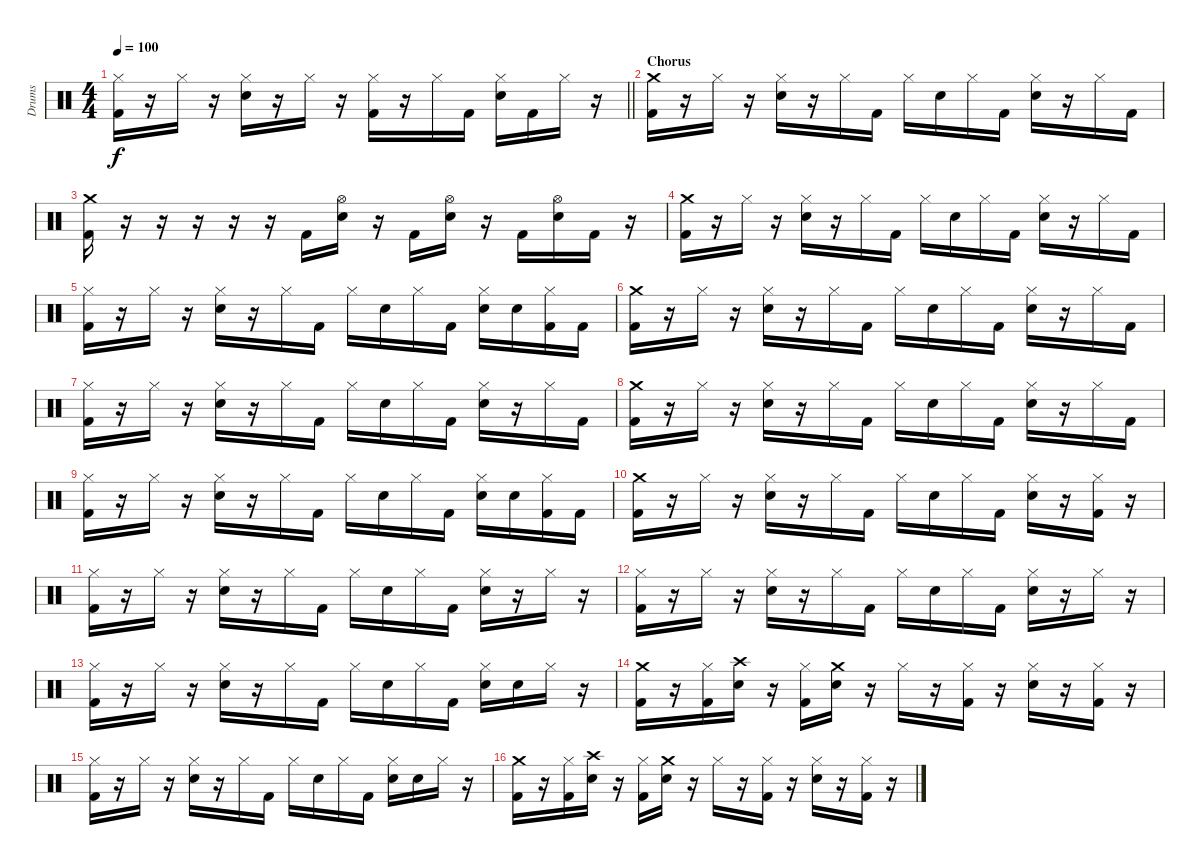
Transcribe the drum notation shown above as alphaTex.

\track ("Drums" "Drums") {instrument percussion}
\staff {score}
\articulation defaults
\ts (4 4)
\tempo 100
\clef neutral
\barLineRight lightlight
\ks c
("Hi-Hat (closed)" "Kick (hit) 2").16{dy f} r.16 "Hi-Hat (closed)".16 r.16 ("Hi-Hat (closed)" "Snare (hit) 2").16 r.16 "Hi-Hat (closed)".16 r.16 ("Hi-Hat (closed)" "Kick (hit) 2").16 r.16 "Hi-Hat (closed)".16 "Kick (hit) 2".16 ("Hi-Hat (closed)" "Snare (hit) 2").16 "Kick (hit) 2".16 "Hi-Hat (closed)".16 r.16 |
\section ("" "Chorus")
("Crash medium (hit)" "Kick (hit) 2").16 r.16 "Hi-Hat (closed)".16 r.16 ("Hi-Hat (closed)" "Snare (hit) 2").16 r.16 "Hi-Hat (closed)".16 "Kick (hit) 2".16 "Hi-Hat (closed)".16 "Snare (hit) 2".16 "Hi-Hat (closed)".16 "Kick (hit) 2".16 ("Hi-Hat (closed)" "Snare (hit) 2").16 r.16 "Hi-Hat (closed)".16 "Kick (hit) 2".16 |
("Crash medium (hit)" "Kick (hit) 2").16 r.16 r.16 r.16 r.16 r.16 "Kick (hit) 2".16 ("Hi-Hat (open)" "Snare (hit) 2").16 r.16 "Kick (hit) 2".16 ("Hi-Hat (open)" "Snare (hit) 2").16 r.16 "Kick (hit) 2".16 ("Hi-Hat (open)" "Snare (hit) 2").16 "Kick (hit) 2".16 r.16 |
("Crash medium (hit)" "Kick (hit) 2").16 r.16 "Hi-Hat (closed)".16 r.16 ("Hi-Hat (closed)" "Snare (hit) 2").16 r.16 "Hi-Hat (closed)".16 "Kick (hit) 2".16 "Hi-Hat (closed)".16 "Snare (hit) 2".16 "Hi-Hat (closed)".16 "Kick (hit) 2".16 ("Hi-Hat (closed)" "Snare (hit) 2").16 r.16 "Hi-Hat (closed)".16 "Kick (hit) 2".16 |
("Hi-Hat (closed)" "Kick (hit) 2").16 r.16 "Hi-Hat (closed)".16 r.16 ("Hi-Hat (closed)" "Snare (hit) 2").16 r.16 "Hi-Hat (closed)".16 "Kick (hit) 2".16 "Hi-Hat (closed)".16 "Snare (hit) 2".16 "Hi-Hat (closed)".16 "Kick (hit) 2".16 ("Hi-Hat (closed)" "Snare (hit) 2").16 "Snare (hit) 2".16 ("Hi-Hat (closed)" "Kick (hit) 2").16 "Kick (hit) 2".16 |
("Crash medium (hit)" "Kick (hit) 2").16 r.16 "Hi-Hat (closed)".16 r.16 ("Hi-Hat (closed)" "Snare (hit) 2").16 r.16 "Hi-Hat (closed)".16 "Kick (hit) 2".16 "Hi-Hat (closed)".16 "Snare (hit) 2".16 "Hi-Hat (closed)".16 "Kick (hit) 2".16 ("Hi-Hat (closed)" "Snare (hit) 2").16 r.16 "Hi-Hat (closed)".16 "Kick (hit) 2".16 |
("Hi-Hat (closed)" "Kick (hit) 2").16 r.16 "Hi-Hat (closed)".16 r.16 ("Hi-Hat (closed)" "Snare (hit) 2").16 r.16 "Hi-Hat (closed)".16 "Kick (hit) 2".16 "Hi-Hat (closed)".16 "Snare (hit) 2".16 "Hi-Hat (closed)".16 "Kick (hit) 2".16 ("Hi-Hat (closed)" "Snare (hit) 2").16 r.16 "Hi-Hat (closed)".16 "Kick (hit) 2".16 |
("Crash medium (hit)" "Kick (hit) 2").16 r.16 "Hi-Hat (closed)".16 r.16 ("Hi-Hat (closed)" "Snare (hit) 2").16 r.16 "Hi-Hat (closed)".16 "Kick (hit) 2".16 "Hi-Hat (closed)".16 "Snare (hit) 2".16 "Hi-Hat (closed)".16 "Kick (hit) 2".16 ("Hi-Hat (closed)" "Snare (hit) 2").16 r.16 "Hi-Hat (closed)".16 "Kick (hit) 2".16 |
("Hi-Hat (closed)" "Kick (hit) 2").16 r.16 "Hi-Hat (closed)".16 r.16 ("Hi-Hat (closed)" "Snare (hit) 2").16 r.16 "Hi-Hat (closed)".16 "Kick (hit) 2".16 "Hi-Hat (closed)".16 "Snare (hit) 2".16 "Hi-Hat (closed)".16 "Kick (hit) 2".16 ("Hi-Hat (closed)" "Snare (hit) 2").16 "Snare (hit) 2".16 ("Hi-Hat (closed)" "Kick (hit) 2").16 "Kick (hit) 2".16 |
("Crash medium (hit)" "Kick (hit) 2").16 r.16 "Hi-Hat (closed)".16 r.16 ("Hi-Hat (closed)" "Snare (hit) 2").16 r.16 "Hi-Hat (closed)".16 "Kick (hit) 2".16 "Hi-Hat (closed)".16 "Snare (hit) 2".16 "Hi-Hat (closed)".16 "Kick (hit) 2".16 ("Hi-Hat (closed)" "Snare (hit) 2").16 r.16 ("Hi-Hat (closed)" "Kick (hit) 2").16 r.16 |
("Hi-Hat (closed)" "Kick (hit) 2").16 r.16 "Hi-Hat (closed)".16 r.16 ("Hi-Hat (closed)" "Snare (hit) 2").16 r.16 "Hi-Hat (closed)".16 "Kick (hit) 2".16 "Hi-Hat (closed)".16 "Snare (hit) 2".16 "Hi-Hat (closed)".16 "Kick (hit) 2".16 ("Hi-Hat (closed)" "Snare (hit) 2").16 r.16 "Hi-Hat (closed)".16 r.16 |
("Hi-Hat (closed)" "Kick (hit) 2").16 r.16 "Hi-Hat (closed)".16 r.16 ("Hi-Hat (closed)" "Snare (hit) 2").16 r.16 "Hi-Hat (closed)".16 "Kick (hit) 2".16 "Hi-Hat (closed)".16 "Snare (hit) 2".16 "Hi-Hat (closed)".16 "Kick (hit) 2".16 ("Hi-Hat (closed)" "Snare (hit) 2").16 r.16 "Hi-Hat (closed)".16 r.16 |
("Hi-Hat (closed)" "Kick (hit) 2").16 r.16 "Hi-Hat (closed)".16 r.16 ("Hi-Hat (closed)" "Snare (hit) 2").16 r.16 "Hi-Hat (closed)".16 "Kick (hit) 2".16 "Hi-Hat (closed)".16 "Snare (hit) 2".16 "Hi-Hat (closed)".16 "Kick (hit) 2".16 ("Hi-Hat (closed)" "Snare (hit) 2").16 "Snare (hit) 2".16 "Hi-Hat (closed)".16 r.16 |
("Crash medium (hit)" "Kick (hit) 2").16 r.16 ("Hi-Hat (closed)" "Kick (hit) 2").16 ("Crash high (hit)" "Snare (hit) 2").16 r.16 ("Hi-Hat (closed)" "Kick (hit) 2").16 ("Crash medium (hit)" "Snare (hit) 2").16 r.16 "Hi-Hat (closed)".16 r.16 ("Hi-Hat (closed)" "Kick (hit) 2").16 r.16 ("Hi-Hat (closed)" "Snare (hit) 2").16 r.16 ("Hi-Hat (closed)" "Kick (hit) 2").16 r.16 |
("Hi-Hat (closed)" "Kick (hit) 2").16 r.16 "Hi-Hat (closed)".16 r.16 ("Hi-Hat (closed)" "Snare (hit) 2").16 r.16 "Hi-Hat (closed)".16 "Kick (hit) 2".16 "Hi-Hat (closed)".16 "Snare (hit) 2".16 "Hi-Hat (closed)".16 "Kick (hit) 2".16 ("Hi-Hat (closed)" "Snare (hit) 2").16 "Snare (hit) 2".16 "Hi-Hat (closed)".16 r.16 |
("Crash medium (hit)" "Kick (hit) 2").16 r.16 ("Hi-Hat (closed)" "Kick (hit) 2").16 ("Crash high (hit)" "Snare (hit) 2").16 r.16 ("Hi-Hat (closed)" "Kick (hit) 2").16 ("Crash medium (hit)" "Snare (hit) 2").16 r.16 "Hi-Hat (closed)".16 r.16 ("Hi-Hat (closed)" "Kick (hit) 2").16 r.16 ("Hi-Hat (closed)" "Snare (hit) 2").16 r.16 ("Hi-Hat (closed)" "Kick (hit) 2").16 r.16
